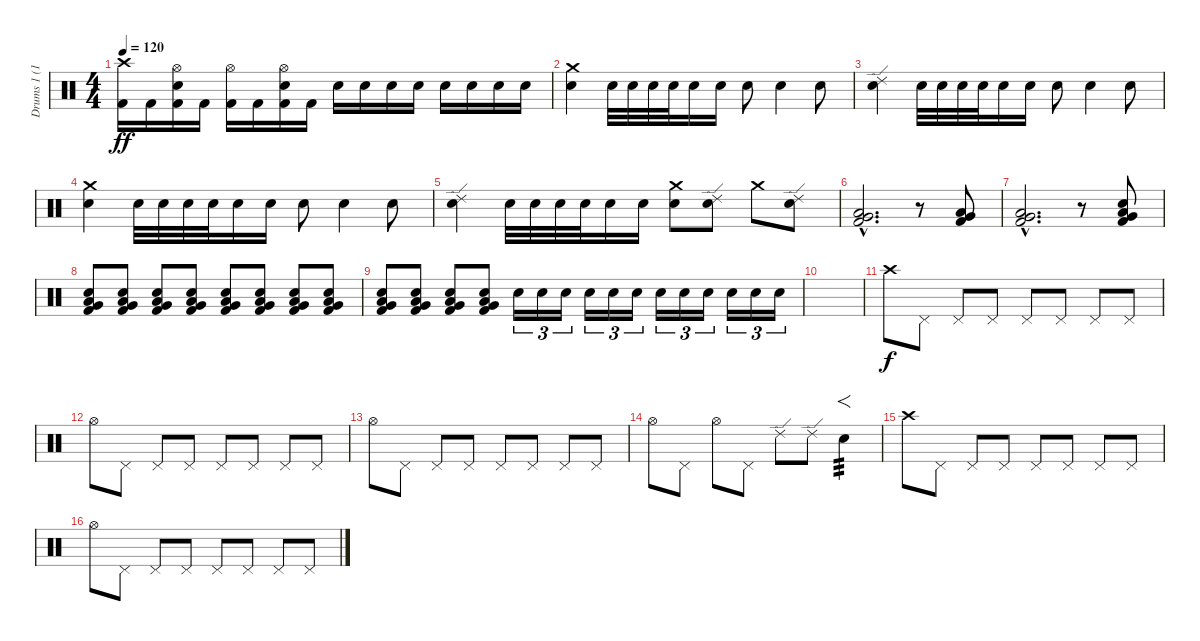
\track ("Drums 1 (16)" "Drums 1 (1") {instrument percussion}
\staff {score}
\articulation defaults
\ts (4 4)
\tempo 120
\clef neutral
\ks c
("Kick (hit) 2" "Crash high (hit)").16{dy ff} "Kick (hit) 2".16 ("Kick (hit) 2" "Snare (hit) 2" "Hi-Hat (open)").16 "Kick (hit) 2".16 ("Kick (hit) 2" "Hi-Hat (open)").16 "Kick (hit) 2".16 ("Kick (hit) 2" "Snare (hit) 2" "Hi-Hat (open)").16 "Kick (hit) 2".16 "Snare (hit) 2".16 "Snare (hit) 2".16 "Snare (hit) 2".16 "Snare (hit) 2".16 "Snare (hit) 2".16 "Snare (hit) 2".16 "Snare (hit) 2".16 "Snare (hit) 2".16 |
("Electric Snare (hit)" "Crash medium (hit)").4 "Electric Snare (hit)".32 "Electric Snare (hit)".32 "Electric Snare (hit)".32 "Electric Snare (hit)".32 "Electric Snare (hit)".16 "Electric Snare (hit)".16 "Electric Snare (hit)".8 "Electric Snare (hit)".4 "Electric Snare (hit)".8 |
("Electric Snare (hit)" "Ride (edge) 2").4 "Electric Snare (hit)".32 "Electric Snare (hit)".32 "Electric Snare (hit)".32 "Electric Snare (hit)".32 "Electric Snare (hit)".16 "Electric Snare (hit)".16 "Electric Snare (hit)".8 "Electric Snare (hit)".4 "Electric Snare (hit)".8 |
("Electric Snare (hit)" "Crash medium (hit)").4 "Electric Snare (hit)".32 "Electric Snare (hit)".32 "Electric Snare (hit)".32 "Electric Snare (hit)".32 "Electric Snare (hit)".16 "Electric Snare (hit)".16 "Electric Snare (hit)".8 "Electric Snare (hit)".4 "Electric Snare (hit)".8 |
("Electric Snare (hit)" "Ride (edge) 2").4 "Electric Snare (hit)".32 "Electric Snare (hit)".32 "Electric Snare (hit)".32 "Electric Snare (hit)".32 "Electric Snare (hit)".16 "Electric Snare (hit)".16 ("Electric Snare (hit)" "Crash medium (hit)").8 ("Electric Snare (hit)" "Ride (edge) 2").8 "Crash medium (hit)".8 ("Electric Snare (hit)" "Ride (edge) 2").8 |
("Kick (hit) 2"{hac} "Low Floor Tom (hit)"{hac} "Very Low Tom (hit)"{hac}).2{d balance 0} r.8 ("Kick (hit) 2" "Low Floor Tom (hit)" "Very Low Tom (hit)").8 |
("Kick (hit) 2"{hac} "Low Floor Tom (hit)"{hac} "Very Low Tom (hit)"{hac}).2{d} r.8 ("Kick (hit) 2" "Snare (hit) 2" "Low Floor Tom (hit)" "Very Low Tom (hit)").8 |
("Kick (hit) 2" "Snare (hit) 2" "Low Floor Tom (hit)" "Very Low Tom (hit)").8{volume 4 balance 8} ("Kick (hit) 2" "Snare (hit) 2" "Low Floor Tom (hit)" "Very Low Tom (hit)").8{volume 5} ("Kick (hit) 2" "Snare (hit) 2" "Low Floor Tom (hit)" "Very Low Tom (hit)").8{volume 6} ("Kick (hit) 2" "Snare (hit) 2" "Low Floor Tom (hit)" "Very Low Tom (hit)").8{volume 7} ("Kick (hit) 2" "Snare (hit) 2" "Low Floor Tom (hit)" "Very Low Tom (hit)").8{volume 8} ("Kick (hit) 2" "Snare (hit) 2" "Low Floor Tom (hit)" "Very Low Tom (hit)").8{volume 9} ("Kick (hit) 2" "Snare (hit) 2" "Low Floor Tom (hit)" "Very Low Tom (hit)").8{volume 10} ("Kick (hit) 2" "Snare (hit) 2" "Low Floor Tom (hit)" "Very Low Tom (hit)").8{volume 11} |
("Kick (hit) 2" "Snare (hit) 2" "Low Floor Tom (hit)" "Very Low Tom (hit)").8{volume 12} ("Kick (hit) 2" "Snare (hit) 2" "Low Floor Tom (hit)" "Very Low Tom (hit)").8{volume 13} ("Kick (hit) 2" "Snare (hit) 2" "Low Floor Tom (hit)" "Very Low Tom (hit)").8{volume 14} ("Kick (hit) 2" "Snare (hit) 2" "Low Floor Tom (hit)" "Very Low Tom (hit)").8{volume 15} "Snare (hit) 2".16{tu (3 2) volume 16 balance 15} "Snare (hit) 2".16{tu (3 2)} "Snare (hit) 2".16{tu (3 2) balance 15} "Snare (hit) 2".16{tu (3 2) balance 8} "Snare (hit) 2".16{tu (3 2)} "Snare (hit) 2".16{tu (3 2) balance 8} "Snare (hit) 2".16{tu (3 2) balance 1} "Snare (hit) 2".16{tu (3 2)} "Snare (hit) 2".16{tu (3 2) balance 1} "Snare (hit) 2".16{tu (3 2) balance 8} "Snare (hit) 2".16{tu (3 2)} "Snare (hit) 2".16{tu (3 2) balance 8} |
|
"Crash high (hit)".8{dy f balance 0} "Pedal Hi-Hat (hit)".8 "Pedal Hi-Hat (hit)".8 "Pedal Hi-Hat (hit)".8 "Pedal Hi-Hat (hit)".8 "Pedal Hi-Hat (hit)".8 "Pedal Hi-Hat (hit)".8 "Pedal Hi-Hat (hit)".8 |
"Hi-Hat (open)".8 "Pedal Hi-Hat (hit)".8 "Pedal Hi-Hat (hit)".8 "Pedal Hi-Hat (hit)".8 "Pedal Hi-Hat (hit)".8 "Pedal Hi-Hat (hit)".8 "Pedal Hi-Hat (hit)".8 "Pedal Hi-Hat (hit)".8 |
"Hi-Hat (open)".8 "Pedal Hi-Hat (hit)".8 "Pedal Hi-Hat (hit)".8 "Pedal Hi-Hat (hit)".8 "Pedal Hi-Hat (hit)".8 "Pedal Hi-Hat (hit)".8 "Pedal Hi-Hat (hit)".8 "Pedal Hi-Hat (hit)".8 |
"Hi-Hat (open)".8 "Pedal Hi-Hat (hit)".8 "Hi-Hat (open)".8 "Pedal Hi-Hat (hit)".8 "Ride (edge) 2".8 "Ride (edge) 2".8 "Snare (hit) 2".4{f tp 3} |
"Crash high (hit)".8{balance 0} "Pedal Hi-Hat (hit)".8 "Pedal Hi-Hat (hit)".8 "Pedal Hi-Hat (hit)".8 "Pedal Hi-Hat (hit)".8 "Pedal Hi-Hat (hit)".8 "Pedal Hi-Hat (hit)".8 "Pedal Hi-Hat (hit)".8 |
"Hi-Hat (open)".8 "Pedal Hi-Hat (hit)".8 "Pedal Hi-Hat (hit)".8 "Pedal Hi-Hat (hit)".8 "Pedal Hi-Hat (hit)".8 "Pedal Hi-Hat (hit)".8 "Pedal Hi-Hat (hit)".8 "Pedal Hi-Hat (hit)".8
